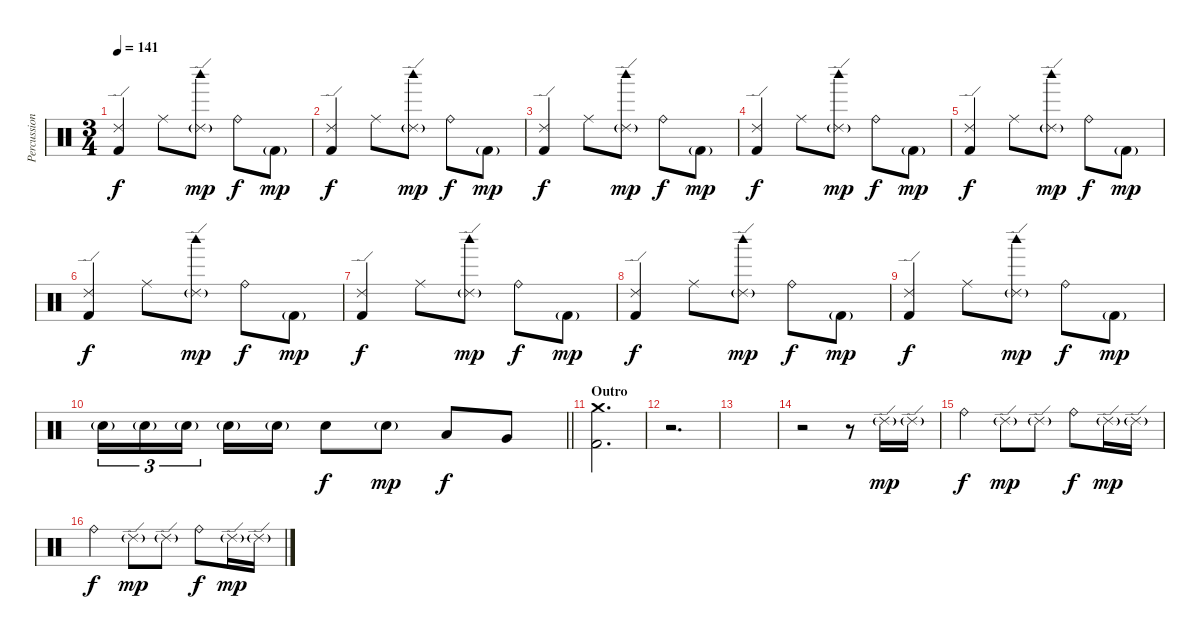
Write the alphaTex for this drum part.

\track ("Percussion" "Percussion") {instrument percussion}
\staff {score}
\articulation defaults
\ts (3 4)
\tempo 141
\clef neutral
\ks c
("Ride (edge) 2" "Kick (hit) 2").4{dy f} "Ride (middle)".8 ("Ride (edge) 2"{g} "Woodblock high (hit)").8{dy mp} "Ride (bell)".8{dy f} "Kick (hit) 2"{g}.8{dy mp} |
("Ride (edge) 2" "Kick (hit) 2").4{dy f} "Ride (middle)".8 ("Ride (edge) 2"{g} "Woodblock high (hit)").8{dy mp} "Ride (bell)".8{dy f} "Kick (hit) 2"{g}.8{dy mp} |
("Ride (edge) 2" "Kick (hit) 2").4{dy f} "Ride (middle)".8 ("Ride (edge) 2"{g} "Woodblock high (hit)").8{dy mp} "Ride (bell)".8{dy f} "Kick (hit) 2"{g}.8{dy mp} |
("Ride (edge) 2" "Kick (hit) 2").4{dy f} "Ride (middle)".8 ("Ride (edge) 2"{g} "Woodblock high (hit)").8{dy mp} "Ride (bell)".8{dy f} "Kick (hit) 2"{g}.8{dy mp} |
("Ride (edge) 2" "Kick (hit) 2").4{dy f} "Ride (middle)".8 ("Ride (edge) 2"{g} "Woodblock high (hit)").8{dy mp} "Ride (bell)".8{dy f} "Kick (hit) 2"{g}.8{dy mp} |
("Ride (edge) 2" "Kick (hit) 2").4{dy f} "Ride (middle)".8 ("Ride (edge) 2"{g} "Woodblock high (hit)").8{dy mp} "Ride (bell)".8{dy f} "Kick (hit) 2"{g}.8{dy mp} |
("Ride (edge) 2" "Kick (hit) 2").4{dy f} "Ride (middle)".8 ("Ride (edge) 2"{g} "Woodblock high (hit)").8{dy mp} "Ride (bell)".8{dy f} "Kick (hit) 2"{g}.8{dy mp} |
("Ride (edge) 2" "Kick (hit) 2").4{dy f} "Ride (middle)".8 ("Ride (edge) 2"{g} "Woodblock high (hit)").8{dy mp} "Ride (bell)".8{dy f} "Kick (hit) 2"{g}.8{dy mp} |
("Ride (edge) 2" "Kick (hit) 2").4{dy f} "Ride (middle)".8 ("Ride (edge) 2"{g} "Woodblock high (hit)").8{dy mp} "Ride (bell)".8{dy f} "Kick (hit) 2"{g}.8{dy mp} |
\barLineRight lightlight "Electric Snare (hit)"{g}.16{tu (3 2)} "Electric Snare (hit)"{g}.16{tu (3 2)} "Electric Snare (hit)"{g}.16{tu (3 2) beam splitsecondary} "Electric Snare (hit)"{g}.16 "Electric Snare (hit)"{g}.16 "Electric Snare (hit)".8{dy f} "Electric Snare (hit)"{g}.8{dy mp} "Low Tom (hit)".8{dy f} "Very Low Tom (hit)".8
|
\section ("" "Outro")
("Crash medium (hit)" "Kick (hit) 2").2{d} |
r.2{d} |
|
r.2 r.8 "Ride (edge) 2"{g}.16{dy mp} "Ride (edge) 2"{g}.16 |
"Ride (bell)".4{dy f} "Ride (edge) 2"{g}.8{dy mp} "Ride (edge) 2"{g}.8 "Ride (bell)".8{dy f} "Ride (edge) 2"{g}.16{dy mp} "Ride (edge) 2"{g}.16 |
"Ride (bell)".4{dy f} "Ride (edge) 2"{g}.8{dy mp} "Ride (edge) 2"{g}.8 "Ride (bell)".8{dy f} "Ride (edge) 2"{g}.16{dy mp} "Ride (edge) 2"{g}.16
